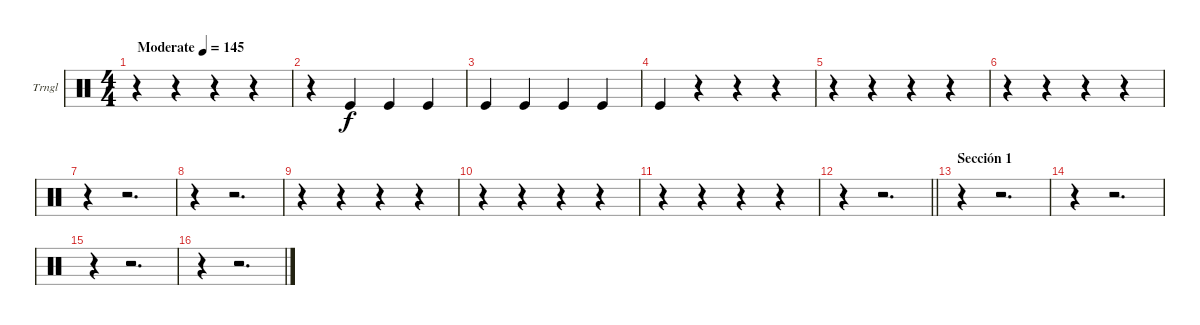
\bracketExtendMode groupsimilarinstruments
\firstSystemTrackNameOrientation horizontal
\otherSystemsTrackNameOrientation horizontal
\track ("Triangle" "Trngl") {instrument percussion}
\staff {score}
\articulation defaults
\ts (4 4)
\beaming (8 2 2 2 2)
\tempo (145 "Moderate")
\clef neutral
\ks c
r.4{dy f} r.4 r.4 r.4 |
r.4 "Kick (hit)".4 "Kick (hit)".4 "Kick (hit)".4 |
"Kick (hit)".4 "Kick (hit)".4 "Kick (hit)".4 "Kick (hit)".4 |
"Kick (hit)".4 r.4 r.4 r.4 |
r.4 r.4 r.4 r.4 |
r.4 r.4 r.4 r.4 |
r.4 r.2{d} |
r.4 r.2{d} |
r.4 r.4 r.4 r.4 |
r.4 r.4 r.4 r.4 |
r.4 r.4 r.4 r.4 |
\barLineRight lightlight
r.4 r.2{d} |
\section ("" "Sección 1")
r.4 r.2{d} |
r.4 r.2{d} |
r.4 r.2{d} |
r.4 r.2{d}
